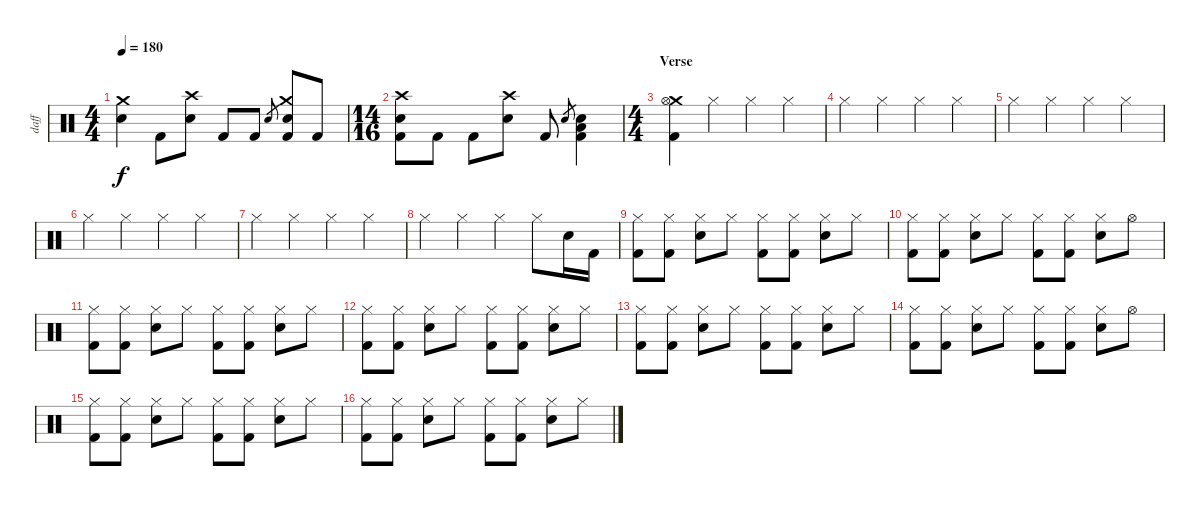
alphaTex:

\track ("daff" "daff") {instrument percussion}
\staff {score}
\articulation defaults
\ts (4 4)
\tempo 180
\clef neutral
\ks c
("Electric Snare (hit)" "Crash medium (hit)").4{dy f} "Kick (hit) 2".8 ("Crash high (hit)" "Electric Snare (hit)").8 "Kick (hit) 2".8 "Kick (hit) 2".8 "Electric Snare (hit)".8{gr} ("Crash medium (hit)" "Electric Snare (hit)" "Kick (hit) 2").8 "Kick (hit) 2".8 |
\ts (14 16)
("Crash high (hit)" "Electric Snare (hit)" "Kick (hit) 2").8 "Kick (hit) 2".8 "Kick (hit) 2".8 ("Crash high (hit)" "Electric Snare (hit)").8 "Kick (hit) 2".8 "Electric Snare (hit)".8{gr} ("Electric Snare (hit)" "Low Tom (hit)" "Kick (hit) 2").4 |
\ts (4 4)
\section ("" "Verse")
("Crash medium (hit)" "Hi-Hat (open)" "Kick (hit) 2").4 "Hi-Hat (closed)".4 "Hi-Hat (closed)".4 "Hi-Hat (closed)".4 |
"Hi-Hat (closed)".4 "Hi-Hat (closed)".4 "Hi-Hat (closed)".4 "Hi-Hat (closed)".4 |
"Hi-Hat (closed)".4 "Hi-Hat (closed)".4 "Hi-Hat (closed)".4 "Hi-Hat (closed)".4 |
"Hi-Hat (closed)".4 "Hi-Hat (closed)".4 "Hi-Hat (closed)".4 "Hi-Hat (closed)".4 |
"Hi-Hat (closed)".4 "Hi-Hat (closed)".4 "Hi-Hat (closed)".4 "Hi-Hat (closed)".4 |
"Hi-Hat (closed)".4 "Hi-Hat (closed)".4 "Hi-Hat (closed)".4 "Hi-Hat (closed)".8 "Electric Snare (hit)".16 "Kick (hit) 2".16 |
("Hi-Hat (closed)" "Kick (hit) 2").8 ("Hi-Hat (closed)" "Kick (hit) 2").8 ("Hi-Hat (closed)" "Electric Snare (hit)").8 "Hi-Hat (closed)".8 ("Hi-Hat (closed)" "Kick (hit) 2").8 ("Hi-Hat (closed)" "Kick (hit) 2").8 ("Hi-Hat (closed)" "Electric Snare (hit)").8 "Hi-Hat (closed)".8 |
("Hi-Hat (closed)" "Kick (hit) 2").8 ("Hi-Hat (closed)" "Kick (hit) 2").8 ("Hi-Hat (closed)" "Electric Snare (hit)").8 "Hi-Hat (closed)".8 ("Hi-Hat (closed)" "Kick (hit) 2").8 ("Hi-Hat (closed)" "Kick (hit) 2").8 ("Hi-Hat (closed)" "Electric Snare (hit)").8 "Hi-Hat (open)".8 |
("Hi-Hat (closed)" "Kick (hit) 2").8 ("Hi-Hat (closed)" "Kick (hit) 2").8 ("Hi-Hat (closed)" "Electric Snare (hit)").8 "Hi-Hat (closed)".8 ("Hi-Hat (closed)" "Kick (hit) 2").8 ("Hi-Hat (closed)" "Kick (hit) 2").8 ("Hi-Hat (closed)" "Electric Snare (hit)").8 "Hi-Hat (closed)".8 |
("Hi-Hat (closed)" "Kick (hit) 2").8 ("Hi-Hat (closed)" "Kick (hit) 2").8 ("Hi-Hat (closed)" "Electric Snare (hit)").8 "Hi-Hat (closed)".8 ("Hi-Hat (closed)" "Kick (hit) 2").8 ("Hi-Hat (closed)" "Kick (hit) 2").8 ("Hi-Hat (closed)" "Electric Snare (hit)").8 "Hi-Hat (closed)".8 |
("Hi-Hat (closed)" "Kick (hit) 2").8 ("Hi-Hat (closed)" "Kick (hit) 2").8 ("Hi-Hat (closed)" "Electric Snare (hit)").8 "Hi-Hat (closed)".8 ("Hi-Hat (closed)" "Kick (hit) 2").8 ("Hi-Hat (closed)" "Kick (hit) 2").8 ("Hi-Hat (closed)" "Electric Snare (hit)").8 "Hi-Hat (closed)".8 |
("Hi-Hat (closed)" "Kick (hit) 2").8 ("Hi-Hat (closed)" "Kick (hit) 2").8 ("Hi-Hat (closed)" "Electric Snare (hit)").8 "Hi-Hat (closed)".8 ("Hi-Hat (closed)" "Kick (hit) 2").8 ("Hi-Hat (closed)" "Kick (hit) 2").8 ("Hi-Hat (closed)" "Electric Snare (hit)").8 "Hi-Hat (open)".8 |
("Hi-Hat (closed)" "Kick (hit) 2").8 ("Hi-Hat (closed)" "Kick (hit) 2").8 ("Hi-Hat (closed)" "Electric Snare (hit)").8 "Hi-Hat (closed)".8 ("Hi-Hat (closed)" "Kick (hit) 2").8 ("Hi-Hat (closed)" "Kick (hit) 2").8 ("Hi-Hat (closed)" "Electric Snare (hit)").8 "Hi-Hat (closed)".8 |
("Hi-Hat (closed)" "Kick (hit) 2").8 ("Hi-Hat (closed)" "Kick (hit) 2").8 ("Hi-Hat (closed)" "Electric Snare (hit)").8 "Hi-Hat (closed)".8 ("Hi-Hat (closed)" "Kick (hit) 2").8 ("Hi-Hat (closed)" "Kick (hit) 2").8 ("Hi-Hat (closed)" "Electric Snare (hit)").8 "Hi-Hat (closed)".8
